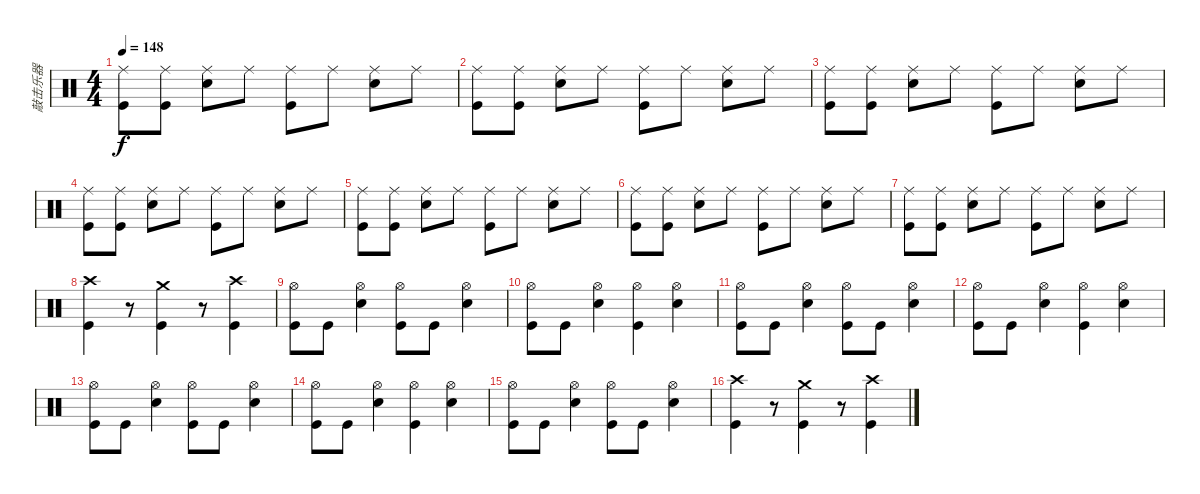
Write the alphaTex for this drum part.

\track ("敲击乐器" "敲击乐器") {instrument percussion}
\staff {score}
\articulation defaults
\ts (4 4)
\tempo 148
\clef neutral
\ks c
("Ride (middle)" "Kick (hit)").8{dy f} ("Ride (middle)" "Kick (hit)").8 ("Ride (middle)" "Snare (hit) 2").8 "Ride (middle)".8 ("Ride (middle)" "Kick (hit)").8 "Ride (middle)".8 ("Ride (middle)" "Snare (hit) 2").8 "Ride (middle)".8 |
("Ride (middle)" "Kick (hit)").8 ("Ride (middle)" "Kick (hit)").8 ("Ride (middle)" "Snare (hit) 2").8 "Ride (middle)".8 ("Ride (middle)" "Kick (hit)").8 "Ride (middle)".8 ("Ride (middle)" "Snare (hit) 2").8 "Ride (middle)".8 |
("Ride (middle)" "Kick (hit)").8 ("Ride (middle)" "Kick (hit)").8 ("Ride (middle)" "Snare (hit) 2").8 "Ride (middle)".8 ("Ride (middle)" "Kick (hit)").8 "Ride (middle)".8 ("Ride (middle)" "Snare (hit) 2").8 "Ride (middle)".8 |
("Ride (middle)" "Kick (hit)").8 ("Ride (middle)" "Kick (hit)").8 ("Ride (middle)" "Snare (hit) 2").8 "Ride (middle)".8 ("Ride (middle)" "Kick (hit)").8 "Ride (middle)".8 ("Ride (middle)" "Snare (hit) 2").8 "Ride (middle)".8 |
("Ride (middle)" "Kick (hit)").8 ("Ride (middle)" "Kick (hit)").8 ("Ride (middle)" "Snare (hit) 2").8 "Ride (middle)".8 ("Ride (middle)" "Kick (hit)").8 "Ride (middle)".8 ("Ride (middle)" "Snare (hit) 2").8 "Ride (middle)".8 |
("Ride (middle)" "Kick (hit)").8 ("Ride (middle)" "Kick (hit)").8 ("Ride (middle)" "Snare (hit) 2").8 "Ride (middle)".8 ("Ride (middle)" "Kick (hit)").8 "Ride (middle)".8 ("Ride (middle)" "Snare (hit) 2").8 "Ride (middle)".8 |
("Ride (middle)" "Kick (hit)").8 ("Ride (middle)" "Kick (hit)").8 ("Ride (middle)" "Snare (hit) 2").8 "Ride (middle)".8 ("Ride (middle)" "Kick (hit)").8 "Ride (middle)".8 ("Ride (middle)" "Snare (hit) 2").8 "Ride (middle)".8 |
("Crash high (hit)" "Kick (hit)").4 r.8 ("Crash medium (hit)" "Kick (hit)").4 r.8 ("Crash high (hit)" "Kick (hit)").4 |
("Hi-Hat (open)" "Kick (hit)").8 "Kick (hit)".8 ("Hi-Hat (open)" "Snare (hit) 2").4 ("Hi-Hat (open)" "Kick (hit)").8 "Kick (hit)".8 ("Hi-Hat (open)" "Snare (hit) 2").4 |
("Hi-Hat (open)" "Kick (hit)").8 "Kick (hit)".8 ("Hi-Hat (open)" "Snare (hit) 2").4 ("Hi-Hat (open)" "Kick (hit)").4 ("Hi-Hat (open)" "Snare (hit) 2").4 |
("Hi-Hat (open)" "Kick (hit)").8 "Kick (hit)".8 ("Hi-Hat (open)" "Snare (hit) 2").4 ("Hi-Hat (open)" "Kick (hit)").8 "Kick (hit)".8 ("Hi-Hat (open)" "Snare (hit) 2").4 |
("Hi-Hat (open)" "Kick (hit)").8 "Kick (hit)".8 ("Hi-Hat (open)" "Snare (hit) 2").4 ("Hi-Hat (open)" "Kick (hit)").4 ("Hi-Hat (open)" "Snare (hit) 2").4 |
("Hi-Hat (open)" "Kick (hit)").8 "Kick (hit)".8 ("Hi-Hat (open)" "Snare (hit) 2").4 ("Hi-Hat (open)" "Kick (hit)").8 "Kick (hit)".8 ("Hi-Hat (open)" "Snare (hit) 2").4 |
("Hi-Hat (open)" "Kick (hit)").8 "Kick (hit)".8 ("Hi-Hat (open)" "Snare (hit) 2").4 ("Hi-Hat (open)" "Kick (hit)").4 ("Hi-Hat (open)" "Snare (hit) 2").4 |
("Hi-Hat (open)" "Kick (hit)").8 "Kick (hit)".8 ("Hi-Hat (open)" "Snare (hit) 2").4 ("Hi-Hat (open)" "Kick (hit)").8 "Kick (hit)".8 ("Hi-Hat (open)" "Snare (hit) 2").4 |
("Crash high (hit)" "Kick (hit)").4 r.8 ("Crash medium (hit)" "Kick (hit)").4 r.8 ("Crash high (hit)" "Kick (hit)").4
